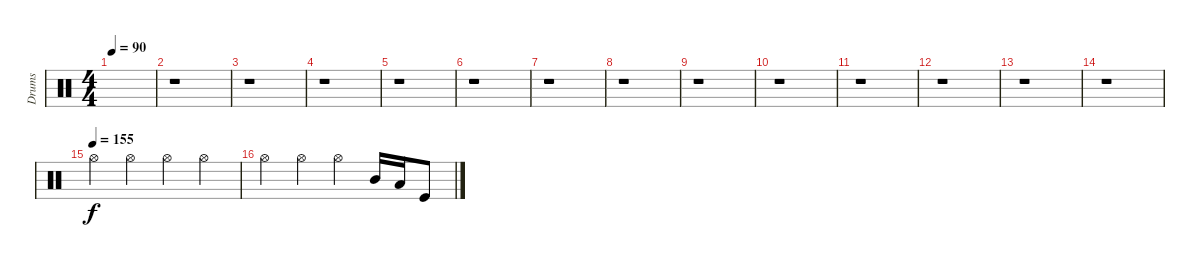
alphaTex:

\track ("Drums" "Drums") {instrument percussion}
\staff {score}
\articulation defaults
\ts (4 4)
\tempo 90
\clef neutral
\ks c
|
r.1 |
r.1 |
r.1 |
r.1 |
r.1 |
r.1 |
r.1 |
r.1 |
r.1 |
r.1 |
r.1 |
r.1 |
r.1 |
\tempo (155)
"Hi-Hat (open)".4 "Hi-Hat (open)".4 "Hi-Hat (open)".4 "Hi-Hat (open)".4 |
"Hi-Hat (open)".4 "Hi-Hat (open)".4 "Hi-Hat (open)".4 "Mid Tom (hit)".16 "Low Tom (hit)".16 "Kick (hit)".8
